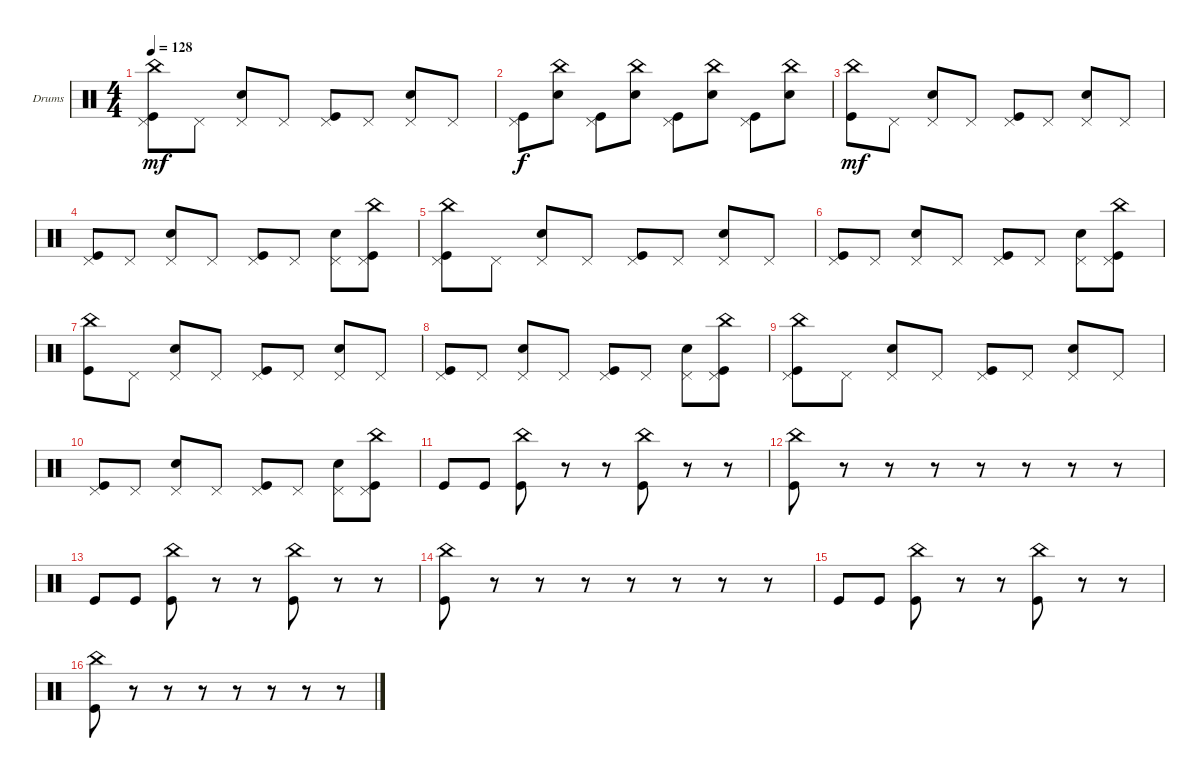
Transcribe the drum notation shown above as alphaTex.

\defaultSystemsLayout 4
\bracketExtendMode groupsimilarinstruments
\firstSystemTrackNameOrientation horizontal
\otherSystemsTrackNameOrientation horizontal
\track ("Drumkit" "Drums") {instrument percussion}
\staff {score}
\articulation defaults
\ts (4 4)
\tempo 128
\clef neutral
\ks c
("China (hit)" "Pedal Hi-Hat (hit)" "Kick (hit)").8{dy mf} "Pedal Hi-Hat (hit)".8 ("Pedal Hi-Hat (hit)" "Snare (hit) 2").8 "Pedal Hi-Hat (hit)".8 ("Pedal Hi-Hat (hit)" "Kick (hit)").8 "Pedal Hi-Hat (hit)".8 ("Pedal Hi-Hat (hit)" "Snare (hit) 2").8 "Pedal Hi-Hat (hit)".8 |
("Kick (hit)" "Pedal Hi-Hat (hit)").8{dy f} ("Snare (hit) 2" "China (hit)").8 ("Kick (hit)" "Pedal Hi-Hat (hit)").8 ("Snare (hit) 2" "China (hit)").8 ("Kick (hit)" "Pedal Hi-Hat (hit)").8 ("Snare (hit) 2" "China (hit)").8 ("Kick (hit)" "Pedal Hi-Hat (hit)").8 ("Snare (hit) 2" "China (hit)").8 |
("Kick (hit)" "China (hit)").8{dy mf} "Pedal Hi-Hat (hit)".8 ("Snare (hit) 2" "Pedal Hi-Hat (hit)").8 "Pedal Hi-Hat (hit)".8 ("Pedal Hi-Hat (hit)" "Kick (hit)").8 "Pedal Hi-Hat (hit)".8 ("Pedal Hi-Hat (hit)" "Snare (hit) 2").8 "Pedal Hi-Hat (hit)".8 |
("Kick (hit)" "Pedal Hi-Hat (hit)").8 "Pedal Hi-Hat (hit)".8 ("Pedal Hi-Hat (hit)" "Snare (hit) 2").8 "Pedal Hi-Hat (hit)".8 ("Pedal Hi-Hat (hit)" "Kick (hit)").8 "Pedal Hi-Hat (hit)".8 ("Pedal Hi-Hat (hit)" "Snare (hit) 2").8 ("Pedal Hi-Hat (hit)" "China (hit)" "Kick (hit)").8 |
("China (hit)" "Pedal Hi-Hat (hit)" "Kick (hit)").8 "Pedal Hi-Hat (hit)".8 ("Pedal Hi-Hat (hit)" "Snare (hit) 2").8 "Pedal Hi-Hat (hit)".8 ("Pedal Hi-Hat (hit)" "Kick (hit)").8 "Pedal Hi-Hat (hit)".8 ("Pedal Hi-Hat (hit)" "Snare (hit) 2").8 "Pedal Hi-Hat (hit)".8 |
("Kick (hit)" "Pedal Hi-Hat (hit)").8 "Pedal Hi-Hat (hit)".8 ("Pedal Hi-Hat (hit)" "Snare (hit) 2").8 "Pedal Hi-Hat (hit)".8 ("Pedal Hi-Hat (hit)" "Kick (hit)").8 "Pedal Hi-Hat (hit)".8 ("Pedal Hi-Hat (hit)" "Snare (hit) 2").8 ("Pedal Hi-Hat (hit)" "China (hit)" "Kick (hit)").8 |
("Kick (hit)" "China (hit)").8 "Pedal Hi-Hat (hit)".8 ("Snare (hit) 2" "Pedal Hi-Hat (hit)").8 "Pedal Hi-Hat (hit)".8 ("Pedal Hi-Hat (hit)" "Kick (hit)").8 "Pedal Hi-Hat (hit)".8 ("Pedal Hi-Hat (hit)" "Snare (hit) 2").8 "Pedal Hi-Hat (hit)".8 |
("Kick (hit)" "Pedal Hi-Hat (hit)").8 "Pedal Hi-Hat (hit)".8 ("Pedal Hi-Hat (hit)" "Snare (hit) 2").8 "Pedal Hi-Hat (hit)".8 ("Pedal Hi-Hat (hit)" "Kick (hit)").8 "Pedal Hi-Hat (hit)".8 ("Pedal Hi-Hat (hit)" "Snare (hit) 2").8 ("Pedal Hi-Hat (hit)" "China (hit)" "Kick (hit)").8 |
("China (hit)" "Pedal Hi-Hat (hit)" "Kick (hit)").8 "Pedal Hi-Hat (hit)".8 ("Pedal Hi-Hat (hit)" "Snare (hit) 2").8 "Pedal Hi-Hat (hit)".8 ("Pedal Hi-Hat (hit)" "Kick (hit)").8 "Pedal Hi-Hat (hit)".8 ("Pedal Hi-Hat (hit)" "Snare (hit) 2").8 "Pedal Hi-Hat (hit)".8 |
("Kick (hit)" "Pedal Hi-Hat (hit)").8 "Pedal Hi-Hat (hit)".8 ("Pedal Hi-Hat (hit)" "Snare (hit) 2").8 "Pedal Hi-Hat (hit)".8 ("Pedal Hi-Hat (hit)" "Kick (hit)").8 "Pedal Hi-Hat (hit)".8 ("Pedal Hi-Hat (hit)" "Snare (hit) 2").8 ("Pedal Hi-Hat (hit)" "China (hit)" "Kick (hit)").8 |
"Kick (hit)".8 "Kick (hit)".8 ("Kick (hit)" "China (hit)").8 r.8 r.8 ("Kick (hit)" "China (hit)").8 r.8 r.8 |
("China (hit)" "Kick (hit)").8 r.8 r.8 r.8 r.8 r.8 r.8 r.8 |
"Kick (hit)".8 "Kick (hit)".8 ("Kick (hit)" "China (hit)").8 r.8 r.8 ("Kick (hit)" "China (hit)").8 r.8 r.8 |
("China (hit)" "Kick (hit)").8 r.8 r.8 r.8 r.8 r.8 r.8 r.8 |
"Kick (hit)".8 "Kick (hit)".8 ("Kick (hit)" "China (hit)").8 r.8 r.8 ("Kick (hit)" "China (hit)").8 r.8 r.8 |
("China (hit)" "Kick (hit)").8 r.8 r.8 r.8 r.8 r.8 r.8 r.8
